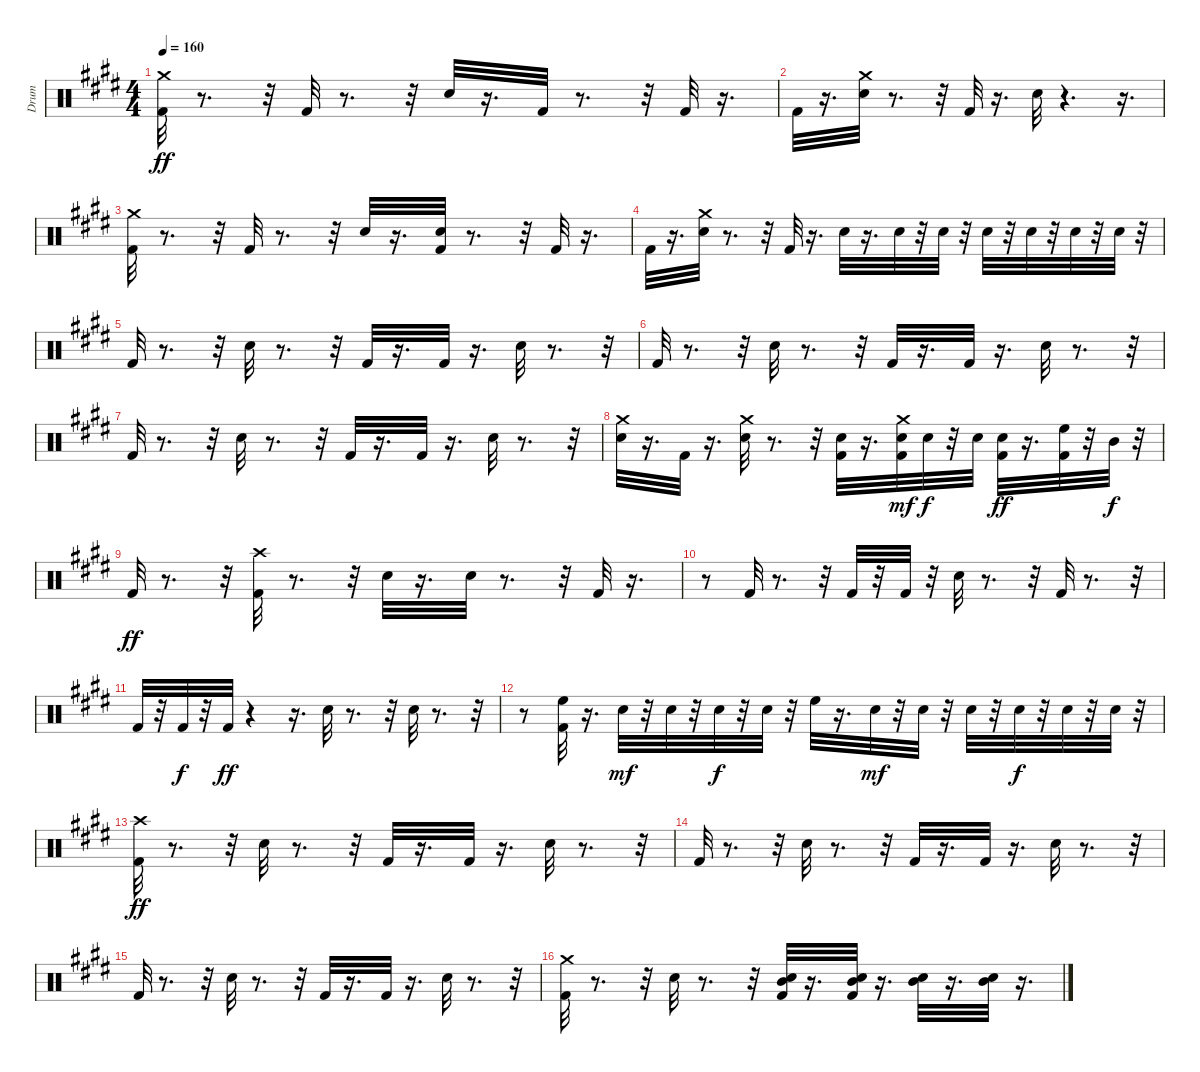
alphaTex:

\track ("Drum" "Drum") {instrument percussion}
\staff {score}
\articulation defaults
\ts (4 4)
\tempo 160
\clef neutral
\ks e
("Crash medium (hit)" "Kick (hit) 2").32{dy ff} r.8{d} r.32 "Kick (hit) 2".32 r.8{d} r.32 "Electric Snare (hit)".32 r.16{d} "Kick (hit) 2".32 r.8{d} r.32 "Kick (hit) 2".32 r.16{d} |
"Kick (hit) 2".32 r.16{d} ("Crash medium (hit)" "Electric Snare (hit)").32 r.8{d} r.32 "Kick (hit) 2".32 r.16{d} "Electric Snare (hit)".32 r.4{d} r.16{d} |
("Crash medium (hit)" "Kick (hit) 2").32 r.8{d} r.32 "Kick (hit) 2".32 r.8{d} r.32 "Electric Snare (hit)".32 r.16{d} ("Kick (hit) 2" "Electric Snare (hit)").32 r.8{d} r.32 "Kick (hit) 2".32 r.16{d} |
"Kick (hit) 2".32 r.16{d} ("Crash medium (hit)" "Electric Snare (hit)").32 r.8{d} r.32 "Kick (hit) 2".32 r.16{d} "Electric Snare (hit)".32 r.16{d} "Electric Snare (hit)".32 r.32 "Electric Snare (hit)".32 r.32 "Electric Snare (hit)".32 r.32 "Electric Snare (hit)".32 r.32 "Electric Snare (hit)".32 r.32 "Electric Snare (hit)".32 r.32 |
"Kick (hit) 2".32 r.8{d} r.32 "Electric Snare (hit)".32 r.8{d} r.32 "Kick (hit) 2".32 r.16{d} "Kick (hit) 2".32 r.16{d} "Electric Snare (hit)".32 r.8{d} r.32 |
"Kick (hit) 2".32 r.8{d} r.32 "Electric Snare (hit)".32 r.8{d} r.32 "Kick (hit) 2".32 r.16{d} "Kick (hit) 2".32 r.16{d} "Electric Snare (hit)".32 r.8{d} r.32 |
"Kick (hit) 2".32 r.8{d} r.32 "Electric Snare (hit)".32 r.8{d} r.32 "Kick (hit) 2".32 r.16{d} "Kick (hit) 2".32 r.16{d} "Electric Snare (hit)".32 r.8{d} r.32 |
("Crash medium (hit)" "Electric Snare (hit)").32 r.16{d} "Kick (hit) 2".32 r.16{d} ("Crash medium (hit)" "Electric Snare (hit)").32 r.8{d} r.32 ("Kick (hit) 2" "Electric Snare (hit)").32 r.16{d} ("Crash medium (hit)" "Kick (hit) 2" "Electric Snare (hit)").32{dy mf} "Electric Snare (hit)".32{dy f} r.32 "Electric Snare (hit)".32 ("Kick (hit) 2" "Electric Snare (hit)").32{dy ff} r.16{d} ("High Floor Tom (hit)" "Kick (hit) 2").32 r.32 "Mid Tom (hit)".32{dy f} r.32 |
"Kick (hit) 2".32{dy ff} r.8{d} r.32 ("Crash high (hit)" "Kick (hit) 2").32 r.8{d} r.32 "Electric Snare (hit)".32 r.16{d} "Electric Snare (hit)".32 r.8{d} r.32 "Kick (hit) 2".32 r.16{d} |
r.8 "Kick (hit) 2".32 r.8{d} r.32 "Kick (hit) 2".32 r.32 "Kick (hit) 2".32 r.32 "Electric Snare (hit)".32 r.8{d} r.32 "Kick (hit) 2".32 r.8{d} r.32 |
"Kick (hit) 2".32 r.32 "Kick (hit) 2".32{dy f} r.32 "Kick (hit) 2".32{dy ff} r.4 r.16{d} "Electric Snare (hit)".32 r.8{d} r.32 "Electric Snare (hit)".32 r.8{d} r.32 |
r.8 ("High Floor Tom (hit)" "Kick (hit) 2").32 r.16{d} "Electric Snare (hit)".32{dy mf} r.32 "Electric Snare (hit)".32 r.32 "Electric Snare (hit)".32{dy f} r.32 "Electric Snare (hit)".32 r.32 "High Floor Tom (hit)".32 r.16{d} "Electric Snare (hit)".32{dy mf} r.32 "Electric Snare (hit)".32 r.32 "Electric Snare (hit)".32 r.32 "Electric Snare (hit)".32{dy f} r.32 "Electric Snare (hit)".32 r.32 "Electric Snare (hit)".32 r.32 |
("Crash high (hit)" "Kick (hit) 2").32{dy ff} r.8{d} r.32 "Electric Snare (hit)".32 r.8{d} r.32 "Kick (hit) 2".32 r.16{d} "Kick (hit) 2".32 r.16{d} "Electric Snare (hit)".32 r.8{d} r.32 |
"Kick (hit) 2".32 r.8{d} r.32 "Electric Snare (hit)".32 r.8{d} r.32 "Kick (hit) 2".32 r.16{d} "Kick (hit) 2".32 r.16{d} "Electric Snare (hit)".32 r.8{d} r.32 |
"Kick (hit) 2".32 r.8{d} r.32 "Electric Snare (hit)".32 r.8{d} r.32 "Kick (hit) 2".32 r.16{d} "Kick (hit) 2".32 r.16{d} "Electric Snare (hit)".32 r.8{d} r.32 |
("Crash medium (hit)" "Kick (hit) 2").32 r.8{d} r.32 "Electric Snare (hit)".32 r.8{d} r.32 ("Mid Tom (hit)" "Kick (hit) 2" "Electric Snare (hit)").32 r.16{d} ("Mid Tom (hit)" "Kick (hit) 2" "Electric Snare (hit)").32 r.16{d} ("Mid Tom (hit)" "Electric Snare (hit)").32 r.16{d} ("Mid Tom (hit)" "Electric Snare (hit)").32 r.16{d}
